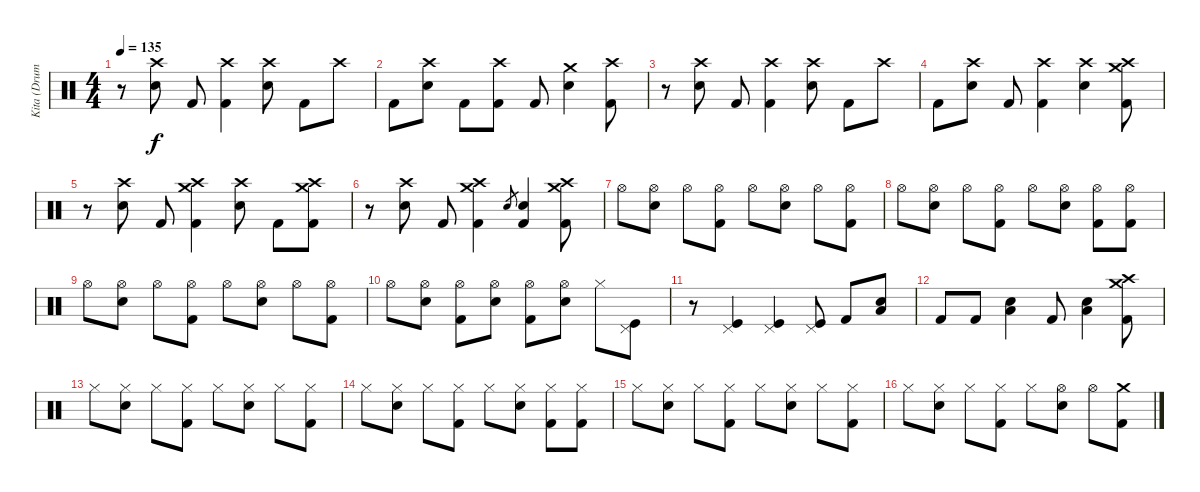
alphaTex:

\track ("Kita (Drums)" "Kita (Drum") {instrument percussion}
\staff {score}
\articulation defaults
\ts (4 4)
\tempo 135
\clef neutral
\ks c
r.8{dy f} ("Crash high (hit)" "Electric Snare (hit)").8 "Kick (hit) 2".8 ("Crash high (hit)" "Kick (hit) 2").4 ("Crash high (hit)" "Electric Snare (hit)").8 "Kick (hit) 2".8 "Crash high (hit)".8 |
"Kick (hit) 2".8 ("Crash high (hit)" "Electric Snare (hit)").8 "Kick (hit) 2".8 ("Crash high (hit)" "Kick (hit) 2").8 "Kick (hit) 2".8 ("Crash medium (hit)" "Electric Snare (hit)").4 ("Crash high (hit)" "Kick (hit) 2").8 |
r.8 ("Crash high (hit)" "Electric Snare (hit)").8 "Kick (hit) 2".8 ("Crash high (hit)" "Kick (hit) 2").4 ("Crash high (hit)" "Electric Snare (hit)").8 "Kick (hit) 2".8 "Crash high (hit)".8 |
"Kick (hit) 2".8 ("Crash high (hit)" "Electric Snare (hit)").8 "Kick (hit) 2".8 ("Crash high (hit)" "Kick (hit) 2").4 ("Crash high (hit)" "Electric Snare (hit)").4 ("Crash medium (hit)" "Crash high (hit)" "Kick (hit) 2").8 |
r.8 ("Crash high (hit)" "Electric Snare (hit)").8 "Kick (hit) 2".8 ("Crash medium (hit)" "Crash high (hit)" "Kick (hit) 2").4 ("Crash high (hit)" "Electric Snare (hit)").8 "Kick (hit) 2".8 ("Crash medium (hit)" "Crash high (hit)" "Kick (hit) 2").8 |
r.8 ("Crash high (hit)" "Electric Snare (hit)").8 "Kick (hit) 2".8 ("Crash medium (hit)" "Crash high (hit)" "Kick (hit) 2").4 "Electric Snare (hit)".8{gr} ("Electric Snare (hit)" "Kick (hit) 2").4 ("Crash medium (hit)" "Crash high (hit)" "Kick (hit) 2").8 |
"Hi-Hat (open)".8 ("Hi-Hat (open)" "Electric Snare (hit)").8 "Hi-Hat (open)".8 ("Hi-Hat (open)" "Kick (hit) 2").8 "Hi-Hat (open)".8 ("Hi-Hat (open)" "Electric Snare (hit)").8 "Hi-Hat (open)".8 ("Hi-Hat (open)" "Kick (hit) 2").8 |
"Hi-Hat (open)".8 ("Hi-Hat (open)" "Electric Snare (hit)").8 "Hi-Hat (open)".8 ("Hi-Hat (open)" "Kick (hit) 2").8 "Hi-Hat (open)".8 ("Hi-Hat (open)" "Electric Snare (hit)").8 ("Hi-Hat (open)" "Kick (hit) 2").8 ("Hi-Hat (open)" "Kick (hit) 2").8 |
"Hi-Hat (open)".8 ("Hi-Hat (open)" "Electric Snare (hit)").8 "Hi-Hat (open)".8 ("Hi-Hat (open)" "Kick (hit) 2").8 "Hi-Hat (open)".8 ("Hi-Hat (open)" "Electric Snare (hit)").8 "Hi-Hat (open)".8 ("Hi-Hat (open)" "Kick (hit) 2").8 |
"Hi-Hat (open)".8 ("Hi-Hat (open)" "Electric Snare (hit)").8 ("Hi-Hat (open)" "Kick (hit) 2").8 ("Hi-Hat (open)" "Electric Snare (hit)").8 ("Hi-Hat (open)" "Kick (hit) 2").8 ("Hi-Hat (open)" "Electric Snare (hit)").8 "Hi-Hat (closed)".8 ("Pedal Hi-Hat (hit)" "Kick (hit)").8 |
r.8 ("Pedal Hi-Hat (hit)" "Kick (hit)").4 ("Pedal Hi-Hat (hit)" "Kick (hit)").4 ("Pedal Hi-Hat (hit)" "Kick (hit)").8 "Kick (hit) 2".8 ("Low Floor Tom (hit)" "Electric Snare (hit)").8 |
"Kick (hit) 2".8 "Kick (hit) 2".8 ("Low Floor Tom (hit)" "Electric Snare (hit)").4 "Kick (hit) 2".8 ("Low Floor Tom (hit)" "Electric Snare (hit)").4 ("Crash medium (hit)" "Crash high (hit)" "Kick (hit) 2").8 |
"Hi-Hat (closed)".8 ("Hi-Hat (closed)" "Electric Snare (hit)").8 "Hi-Hat (closed)".8 ("Hi-Hat (closed)" "Kick (hit) 2").8 "Hi-Hat (closed)".8 ("Hi-Hat (closed)" "Electric Snare (hit)").8 "Hi-Hat (closed)".8 ("Hi-Hat (closed)" "Kick (hit) 2").8 |
"Hi-Hat (closed)".8 ("Hi-Hat (closed)" "Electric Snare (hit)").8 "Hi-Hat (closed)".8 ("Hi-Hat (closed)" "Kick (hit) 2").8 "Hi-Hat (closed)".8 ("Hi-Hat (closed)" "Electric Snare (hit)").8 ("Hi-Hat (closed)" "Kick (hit) 2").8 ("Hi-Hat (closed)" "Kick (hit) 2").8 |
"Hi-Hat (closed)".8 ("Hi-Hat (closed)" "Electric Snare (hit)").8 "Hi-Hat (closed)".8 ("Hi-Hat (closed)" "Kick (hit) 2").8 "Hi-Hat (closed)".8 ("Hi-Hat (closed)" "Electric Snare (hit)").8 "Hi-Hat (closed)".8 ("Hi-Hat (closed)" "Kick (hit) 2").8 |
"Hi-Hat (closed)".8 ("Hi-Hat (closed)" "Electric Snare (hit)").8 "Hi-Hat (closed)".8 ("Hi-Hat (closed)" "Kick (hit) 2").8 "Hi-Hat (closed)".8 ("Hi-Hat (open)" "Electric Snare (hit)").8 "Hi-Hat (open)".8 ("Crash medium (hit)" "Kick (hit) 2").8
